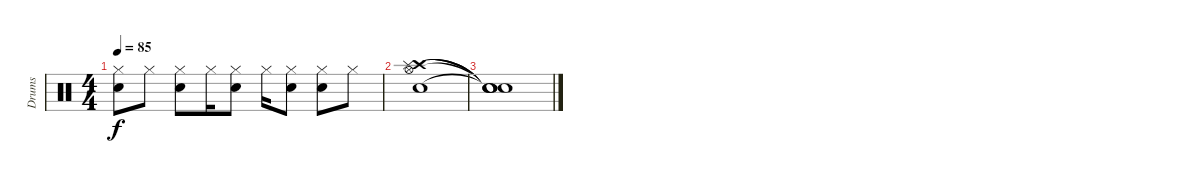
\track ("Drums" "Drums") {instrument percussion}
\staff {score}
\articulation defaults
\ts (4 4)
\tempo 85
\clef neutral
\ks c
("Hi-Hat (closed)" "Snare (hit) 2").8{dy f} "Hi-Hat (closed)".8 ("Hi-Hat (closed)" "Snare (hit) 2").8 "Hi-Hat (closed)".16 ("Hi-Hat (closed)" "Snare (hit) 2").8 "Hi-Hat (closed)".16 ("Hi-Hat (closed)" "Snare (hit) 2").8 ("Hi-Hat (closed)" "Snare (hit) 2").8 "Hi-Hat (closed)".8 |
("Crash high (hit)" "Splash (hit)" "Snare (hit) 2" "Hi-Hat (open)").1 |
("Snare (hit)"{t} "Snare (hit)"{t} "Snare (hit)"{t} "Snare (hit)"{t}).1
